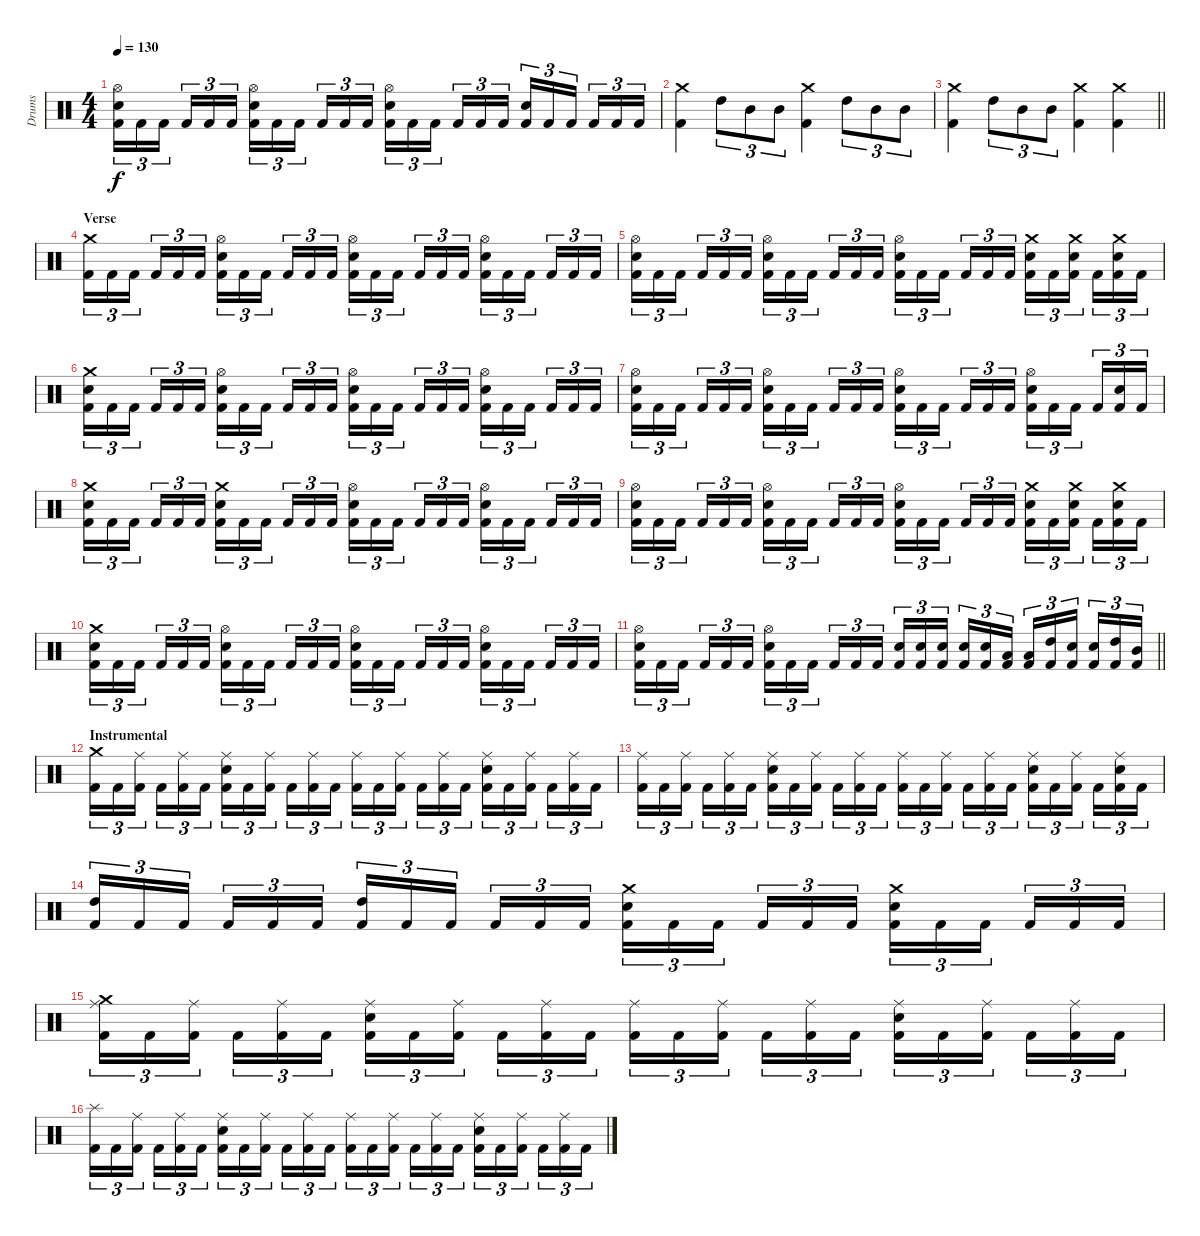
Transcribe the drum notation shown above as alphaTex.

\track ("Drums" "Drums") {instrument percussion}
\staff {score}
\articulation defaults
\ts (4 4)
\tempo 130
\clef neutral
\ks c
("Kick (hit) 2" "Electric Snare (hit)" "Hi-Hat (open)").16{tu (3 2) dy f} "Kick (hit) 2".16{tu (3 2)} "Kick (hit) 2".16{tu (3 2)} "Kick (hit) 2".16{tu (3 2)} "Kick (hit) 2".16{tu (3 2)} "Kick (hit) 2".16{tu (3 2)} ("Kick (hit) 2" "Electric Snare (hit)" "Hi-Hat (open)").16{tu (3 2)} "Kick (hit) 2".16{tu (3 2)} "Kick (hit) 2".16{tu (3 2)} "Kick (hit) 2".16{tu (3 2)} "Kick (hit) 2".16{tu (3 2)} "Kick (hit) 2".16{tu (3 2)} ("Kick (hit) 2" "Electric Snare (hit)" "Hi-Hat (open)").16{tu (3 2)} "Kick (hit) 2".16{tu (3 2)} "Kick (hit) 2".16{tu (3 2)} "Kick (hit) 2".16{tu (3 2)} "Kick (hit) 2".16{tu (3 2)} "Kick (hit) 2".16{tu (3 2)} ("Kick (hit) 2" "Electric Snare (hit)").16{tu (3 2)} "Kick (hit) 2".16{tu (3 2)} "Kick (hit) 2".16{tu (3 2)} "Kick (hit) 2".16{tu (3 2)} "Kick (hit) 2".16{tu (3 2)} "Kick (hit) 2".16{tu (3 2)} |
("Crash medium (hit)" "Kick (hit) 2").4 "High Tom (hit)".8{tu (3 2)} "Mid Tom (hit)".8{tu (3 2)} "Mid Tom (hit)".8{tu (3 2)} ("Crash medium (hit)" "Kick (hit) 2").4 "High Tom (hit)".8{tu (3 2)} "Mid Tom (hit)".8{tu (3 2)} "Mid Tom (hit)".8{tu (3 2)} |
\barLineRight lightlight
("Crash medium (hit)" "Kick (hit) 2").4 "High Tom (hit)".8{tu (3 2)} "Mid Tom (hit)".8{tu (3 2)} "Mid Tom (hit)".8{tu (3 2)} ("Crash medium (hit)" "Kick (hit) 2").4 ("Crash medium (hit)" "Kick (hit) 2").4 |
\section ("" "Verse")
("Kick (hit) 2" "Crash medium (hit)").16{tu (3 2)} "Kick (hit) 2".16{tu (3 2)} "Kick (hit) 2".16{tu (3 2)} "Kick (hit) 2".16{tu (3 2)} "Kick (hit) 2".16{tu (3 2)} "Kick (hit) 2".16{tu (3 2)} ("Kick (hit) 2" "Electric Snare (hit)" "Hi-Hat (open)").16{tu (3 2)} "Kick (hit) 2".16{tu (3 2)} "Kick (hit) 2".16{tu (3 2)} "Kick (hit) 2".16{tu (3 2)} "Kick (hit) 2".16{tu (3 2)} "Kick (hit) 2".16{tu (3 2)} ("Kick (hit) 2" "Electric Snare (hit)" "Hi-Hat (open)").16{tu (3 2)} "Kick (hit) 2".16{tu (3 2)} "Kick (hit) 2".16{tu (3 2)} "Kick (hit) 2".16{tu (3 2)} "Kick (hit) 2".16{tu (3 2)} "Kick (hit) 2".16{tu (3 2)} ("Kick (hit) 2" "Electric Snare (hit)" "Hi-Hat (open)").16{tu (3 2)} "Kick (hit) 2".16{tu (3 2)} "Kick (hit) 2".16{tu (3 2)} "Kick (hit) 2".16{tu (3 2)} "Kick (hit) 2".16{tu (3 2)} "Kick (hit) 2".16{tu (3 2)} |
("Kick (hit) 2" "Electric Snare (hit)" "Hi-Hat (open)").16{tu (3 2)} "Kick (hit) 2".16{tu (3 2)} "Kick (hit) 2".16{tu (3 2)} "Kick (hit) 2".16{tu (3 2)} "Kick (hit) 2".16{tu (3 2)} "Kick (hit) 2".16{tu (3 2)} ("Kick (hit) 2" "Electric Snare (hit)" "Hi-Hat (open)").16{tu (3 2)} "Kick (hit) 2".16{tu (3 2)} "Kick (hit) 2".16{tu (3 2)} "Kick (hit) 2".16{tu (3 2)} "Kick (hit) 2".16{tu (3 2)} "Kick (hit) 2".16{tu (3 2)} ("Kick (hit) 2" "Electric Snare (hit)" "Hi-Hat (open)").16{tu (3 2)} "Kick (hit) 2".16{tu (3 2)} "Kick (hit) 2".16{tu (3 2)} "Kick (hit) 2".16{tu (3 2)} "Kick (hit) 2".16{tu (3 2)} "Kick (hit) 2".16{tu (3 2)} ("Kick (hit) 2" "Electric Snare (hit)" "Crash medium (hit)").16{tu (3 2)} "Kick (hit) 2".16{tu (3 2)} ("Kick (hit) 2" "Electric Snare (hit)" "Crash medium (hit)").16{tu (3 2)} "Kick (hit) 2".16{tu (3 2)} ("Kick (hit) 2" "Electric Snare (hit)" "Crash medium (hit)").16{tu (3 2)} "Kick (hit) 2".16{tu (3 2)} |
("Kick (hit) 2" "Electric Snare (hit)" "Crash medium (hit)").16{tu (3 2)} "Kick (hit) 2".16{tu (3 2)} "Kick (hit) 2".16{tu (3 2)} "Kick (hit) 2".16{tu (3 2)} "Kick (hit) 2".16{tu (3 2)} "Kick (hit) 2".16{tu (3 2)} ("Kick (hit) 2" "Electric Snare (hit)" "Hi-Hat (open)").16{tu (3 2)} "Kick (hit) 2".16{tu (3 2)} "Kick (hit) 2".16{tu (3 2)} "Kick (hit) 2".16{tu (3 2)} "Kick (hit) 2".16{tu (3 2)} "Kick (hit) 2".16{tu (3 2)} ("Kick (hit) 2" "Electric Snare (hit)" "Hi-Hat (open)").16{tu (3 2)} "Kick (hit) 2".16{tu (3 2)} "Kick (hit) 2".16{tu (3 2)} "Kick (hit) 2".16{tu (3 2)} "Kick (hit) 2".16{tu (3 2)} "Kick (hit) 2".16{tu (3 2)} ("Kick (hit) 2" "Electric Snare (hit)" "Hi-Hat (open)").16{tu (3 2)} "Kick (hit) 2".16{tu (3 2)} "Kick (hit) 2".16{tu (3 2)} "Kick (hit) 2".16{tu (3 2)} "Kick (hit) 2".16{tu (3 2)} "Kick (hit) 2".16{tu (3 2)} |
("Kick (hit) 2" "Electric Snare (hit)" "Hi-Hat (open)").16{tu (3 2)} "Kick (hit) 2".16{tu (3 2)} "Kick (hit) 2".16{tu (3 2)} "Kick (hit) 2".16{tu (3 2)} "Kick (hit) 2".16{tu (3 2)} "Kick (hit) 2".16{tu (3 2)} ("Kick (hit) 2" "Electric Snare (hit)" "Hi-Hat (open)").16{tu (3 2)} "Kick (hit) 2".16{tu (3 2)} "Kick (hit) 2".16{tu (3 2)} "Kick (hit) 2".16{tu (3 2)} "Kick (hit) 2".16{tu (3 2)} "Kick (hit) 2".16{tu (3 2)} ("Kick (hit) 2" "Electric Snare (hit)" "Hi-Hat (open)").16{tu (3 2)} "Kick (hit) 2".16{tu (3 2)} "Kick (hit) 2".16{tu (3 2)} "Kick (hit) 2".16{tu (3 2)} "Kick (hit) 2".16{tu (3 2)} "Kick (hit) 2".16{tu (3 2)} ("Kick (hit) 2" "Electric Snare (hit)" "Hi-Hat (open)").16{tu (3 2)} "Kick (hit) 2".16{tu (3 2)} "Kick (hit) 2".16{tu (3 2)} "Kick (hit) 2".16{tu (3 2)} ("Kick (hit) 2" "Electric Snare (hit)").16{tu (3 2)} "Kick (hit) 2".16{tu (3 2)} |
("Kick (hit) 2" "Electric Snare (hit)" "Crash medium (hit)").16{tu (3 2)} "Kick (hit) 2".16{tu (3 2)} "Kick (hit) 2".16{tu (3 2)} "Kick (hit) 2".16{tu (3 2)} "Kick (hit) 2".16{tu (3 2)} "Kick (hit) 2".16{tu (3 2)} ("Kick (hit) 2" "Electric Snare (hit)" "Crash medium (hit)").16{tu (3 2)} "Kick (hit) 2".16{tu (3 2)} "Kick (hit) 2".16{tu (3 2)} "Kick (hit) 2".16{tu (3 2)} "Kick (hit) 2".16{tu (3 2)} "Kick (hit) 2".16{tu (3 2)} ("Kick (hit) 2" "Electric Snare (hit)" "Hi-Hat (open)").16{tu (3 2)} "Kick (hit) 2".16{tu (3 2)} "Kick (hit) 2".16{tu (3 2)} "Kick (hit) 2".16{tu (3 2)} "Kick (hit) 2".16{tu (3 2)} "Kick (hit) 2".16{tu (3 2)} ("Kick (hit) 2" "Electric Snare (hit)" "Hi-Hat (open)").16{tu (3 2)} "Kick (hit) 2".16{tu (3 2)} "Kick (hit) 2".16{tu (3 2)} "Kick (hit) 2".16{tu (3 2)} "Kick (hit) 2".16{tu (3 2)} "Kick (hit) 2".16{tu (3 2)} |
("Kick (hit) 2" "Electric Snare (hit)" "Hi-Hat (open)").16{tu (3 2)} "Kick (hit) 2".16{tu (3 2)} "Kick (hit) 2".16{tu (3 2)} "Kick (hit) 2".16{tu (3 2)} "Kick (hit) 2".16{tu (3 2)} "Kick (hit) 2".16{tu (3 2)} ("Kick (hit) 2" "Electric Snare (hit)" "Hi-Hat (open)").16{tu (3 2)} "Kick (hit) 2".16{tu (3 2)} "Kick (hit) 2".16{tu (3 2)} "Kick (hit) 2".16{tu (3 2)} "Kick (hit) 2".16{tu (3 2)} "Kick (hit) 2".16{tu (3 2)} ("Kick (hit) 2" "Electric Snare (hit)" "Hi-Hat (open)").16{tu (3 2)} "Kick (hit) 2".16{tu (3 2)} "Kick (hit) 2".16{tu (3 2)} "Kick (hit) 2".16{tu (3 2)} "Kick (hit) 2".16{tu (3 2)} "Kick (hit) 2".16{tu (3 2)} ("Kick (hit) 2" "Electric Snare (hit)" "Crash medium (hit)").16{tu (3 2)} "Kick (hit) 2".16{tu (3 2)} ("Kick (hit) 2" "Electric Snare (hit)" "Crash medium (hit)").16{tu (3 2)} "Kick (hit) 2".16{tu (3 2)} ("Kick (hit) 2" "Electric Snare (hit)" "Crash medium (hit)").16{tu (3 2)} "Kick (hit) 2".16{tu (3 2)} |
("Kick (hit) 2" "Electric Snare (hit)" "Crash medium (hit)").16{tu (3 2)} "Kick (hit) 2".16{tu (3 2)} "Kick (hit) 2".16{tu (3 2)} "Kick (hit) 2".16{tu (3 2)} "Kick (hit) 2".16{tu (3 2)} "Kick (hit) 2".16{tu (3 2)} ("Kick (hit) 2" "Electric Snare (hit)" "Hi-Hat (open)").16{tu (3 2)} "Kick (hit) 2".16{tu (3 2)} "Kick (hit) 2".16{tu (3 2)} "Kick (hit) 2".16{tu (3 2)} "Kick (hit) 2".16{tu (3 2)} "Kick (hit) 2".16{tu (3 2)} ("Kick (hit) 2" "Electric Snare (hit)" "Hi-Hat (open)").16{tu (3 2)} "Kick (hit) 2".16{tu (3 2)} "Kick (hit) 2".16{tu (3 2)} "Kick (hit) 2".16{tu (3 2)} "Kick (hit) 2".16{tu (3 2)} "Kick (hit) 2".16{tu (3 2)} ("Kick (hit) 2" "Electric Snare (hit)" "Hi-Hat (open)").16{tu (3 2)} "Kick (hit) 2".16{tu (3 2)} "Kick (hit) 2".16{tu (3 2)} "Kick (hit) 2".16{tu (3 2)} "Kick (hit) 2".16{tu (3 2)} "Kick (hit) 2".16{tu (3 2)} |
\barLineRight lightlight
("Kick (hit) 2" "Electric Snare (hit)" "Hi-Hat (open)").16{tu (3 2)} "Kick (hit) 2".16{tu (3 2)} "Kick (hit) 2".16{tu (3 2)} "Kick (hit) 2".16{tu (3 2)} "Kick (hit) 2".16{tu (3 2)} "Kick (hit) 2".16{tu (3 2)} ("Kick (hit) 2" "Electric Snare (hit)" "Hi-Hat (open)").16{tu (3 2)} "Kick (hit) 2".16{tu (3 2)} "Kick (hit) 2".16{tu (3 2)} "Kick (hit) 2".16{tu (3 2)} "Kick (hit) 2".16{tu (3 2)} "Kick (hit) 2".16{tu (3 2)} ("Kick (hit) 2" "Electric Snare (hit)").16{tu (3 2)} ("Kick (hit) 2" "Electric Snare (hit)").16{tu (3 2)} ("Kick (hit) 2" "Electric Snare (hit)").16{tu (3 2)} ("Kick (hit) 2" "Electric Snare (hit)").16{tu (3 2)} ("Kick (hit) 2" "Electric Snare (hit)").16{tu (3 2)} ("Kick (hit) 2" "Low Tom (hit)").16{tu (3 2)} ("Kick (hit) 2" "Low Tom (hit)").16{tu (3 2)} ("Kick (hit) 2" "High Tom (hit)").16{tu (3 2)} ("Kick (hit) 2" "Electric Snare (hit)").16{tu (3 2)} ("Kick (hit) 2" "Electric Snare (hit)").16{tu (3 2)} ("Kick (hit) 2" "High Tom (hit)").16{tu (3 2)} ("Kick (hit) 2" "Mid Tom (hit)").16{tu (3 2)} |
\section ("" "Instrumental")
("Kick (hit) 2" "Crash medium (hit)").16{tu (3 2)} "Kick (hit) 2".16{tu (3 2)} ("Kick (hit) 2" "Ride (middle)").16{tu (3 2)} "Kick (hit) 2".16{tu (3 2)} ("Kick (hit) 2" "Ride (middle)").16{tu (3 2)} "Kick (hit) 2".16{tu (3 2)} ("Kick (hit) 2" "Electric Snare (hit)" "Ride (middle)").16{tu (3 2)} "Kick (hit) 2".16{tu (3 2)} ("Kick (hit) 2" "Ride (middle)").16{tu (3 2)} "Kick (hit) 2".16{tu (3 2)} ("Kick (hit) 2" "Ride (middle)").16{tu (3 2)} "Kick (hit) 2".16{tu (3 2)} ("Kick (hit) 2" "Ride (middle)").16{tu (3 2)} "Kick (hit) 2".16{tu (3 2)} ("Kick (hit) 2" "Ride (middle)").16{tu (3 2)} "Kick (hit) 2".16{tu (3 2)} ("Kick (hit) 2" "Ride (middle)").16{tu (3 2)} "Kick (hit) 2".16{tu (3 2)} ("Kick (hit) 2" "Electric Snare (hit)" "Ride (middle)").16{tu (3 2)} "Kick (hit) 2".16{tu (3 2)} ("Kick (hit) 2" "Ride (middle)").16{tu (3 2)} "Kick (hit) 2".16{tu (3 2)} ("Kick (hit) 2" "Ride (middle)").16{tu (3 2)} "Kick (hit) 2".16{tu (3 2)} |
("Kick (hit) 2" "Ride (middle)").16{tu (3 2)} "Kick (hit) 2".16{tu (3 2)} ("Kick (hit) 2" "Ride (middle)").16{tu (3 2)} "Kick (hit) 2".16{tu (3 2)} ("Kick (hit) 2" "Ride (middle)").16{tu (3 2)} "Kick (hit) 2".16{tu (3 2)} ("Kick (hit) 2" "Electric Snare (hit)" "Ride (middle)").16{tu (3 2)} "Kick (hit) 2".16{tu (3 2)} ("Kick (hit) 2" "Ride (middle)").16{tu (3 2)} "Kick (hit) 2".16{tu (3 2)} ("Kick (hit) 2" "Ride (middle)").16{tu (3 2)} "Kick (hit) 2".16{tu (3 2)} ("Kick (hit) 2" "Ride (middle)").16{tu (3 2)} "Kick (hit) 2".16{tu (3 2)} ("Kick (hit) 2" "Ride (middle)").16{tu (3 2)} "Kick (hit) 2".16{tu (3 2)} ("Kick (hit) 2" "Ride (middle)").16{tu (3 2)} "Kick (hit) 2".16{tu (3 2)} ("Kick (hit) 2" "Electric Snare (hit)" "Ride (middle)").16{tu (3 2)} "Kick (hit) 2".16{tu (3 2)} ("Kick (hit) 2" "Ride (middle)").16{tu (3 2)} "Kick (hit) 2".16{tu (3 2)} ("Kick (hit) 2" "Electric Snare (hit)" "Ride (middle)").16{tu (3 2)} "Kick (hit) 2".16{tu (3 2)} |
("Kick (hit) 2" "High Tom (hit)").16{tu (3 2)} "Kick (hit) 2".16{tu (3 2)} "Kick (hit) 2".16{tu (3 2)} "Kick (hit) 2".16{tu (3 2)} "Kick (hit) 2".16{tu (3 2)} "Kick (hit) 2".16{tu (3 2)} ("Kick (hit) 2" "High Tom (hit)").16{tu (3 2)} "Kick (hit) 2".16{tu (3 2)} "Kick (hit) 2".16{tu (3 2)} "Kick (hit) 2".16{tu (3 2)} "Kick (hit) 2".16{tu (3 2)} "Kick (hit) 2".16{tu (3 2)} ("Kick (hit) 2" "Electric Snare (hit)" "Crash medium (hit)").16{tu (3 2)} "Kick (hit) 2".16{tu (3 2)} "Kick (hit) 2".16{tu (3 2)} "Kick (hit) 2".16{tu (3 2)} "Kick (hit) 2".16{tu (3 2)} "Kick (hit) 2".16{tu (3 2)} ("Kick (hit) 2" "Electric Snare (hit)" "Crash medium (hit)").16{tu (3 2)} "Kick (hit) 2".16{tu (3 2)} "Kick (hit) 2".16{tu (3 2)} "Kick (hit) 2".16{tu (3 2)} "Kick (hit) 2".16{tu (3 2)} "Kick (hit) 2".16{tu (3 2)} |
("Kick (hit) 2" "Crash medium (hit)" "Ride (middle)").16{tu (3 2)} "Kick (hit) 2".16{tu (3 2)} ("Kick (hit) 2" "Ride (middle)").16{tu (3 2)} "Kick (hit) 2".16{tu (3 2)} ("Kick (hit) 2" "Ride (middle)").16{tu (3 2)} "Kick (hit) 2".16{tu (3 2)} ("Kick (hit) 2" "Electric Snare (hit)" "Ride (middle)").16{tu (3 2)} "Kick (hit) 2".16{tu (3 2)} ("Kick (hit) 2" "Ride (middle)").16{tu (3 2)} "Kick (hit) 2".16{tu (3 2)} ("Kick (hit) 2" "Ride (middle)").16{tu (3 2)} "Kick (hit) 2".16{tu (3 2)} ("Kick (hit) 2" "Ride (middle)").16{tu (3 2)} "Kick (hit) 2".16{tu (3 2)} ("Kick (hit) 2" "Ride (middle)").16{tu (3 2)} "Kick (hit) 2".16{tu (3 2)} ("Kick (hit) 2" "Ride (middle)").16{tu (3 2)} "Kick (hit) 2".16{tu (3 2)} ("Kick (hit) 2" "Electric Snare (hit)" "Ride (middle)").16{tu (3 2)} "Kick (hit) 2".16{tu (3 2)} ("Kick (hit) 2" "Ride (middle)").16{tu (3 2)} "Kick (hit) 2".16{tu (3 2)} ("Kick (hit) 2" "Ride (middle)").16{tu (3 2)} "Kick (hit) 2".16{tu (3 2)} |
("Kick (hit) 2" "Splash (hit)").16{tu (3 2)} "Kick (hit) 2".16{tu (3 2)} ("Kick (hit) 2" "Ride (middle)").16{tu (3 2)} "Kick (hit) 2".16{tu (3 2)} ("Kick (hit) 2" "Ride (middle)").16{tu (3 2)} "Kick (hit) 2".16{tu (3 2)} ("Kick (hit) 2" "Electric Snare (hit)" "Ride (middle)").16{tu (3 2)} "Kick (hit) 2".16{tu (3 2)} ("Kick (hit) 2" "Ride (middle)").16{tu (3 2)} "Kick (hit) 2".16{tu (3 2)} ("Kick (hit) 2" "Ride (middle)").16{tu (3 2)} "Kick (hit) 2".16{tu (3 2)} ("Kick (hit) 2" "Ride (middle)").16{tu (3 2)} "Kick (hit) 2".16{tu (3 2)} ("Kick (hit) 2" "Ride (middle)").16{tu (3 2)} "Kick (hit) 2".16{tu (3 2)} ("Kick (hit) 2" "Ride (middle)").16{tu (3 2)} "Kick (hit) 2".16{tu (3 2)} ("Kick (hit) 2" "Electric Snare (hit)" "Ride (middle)").16{tu (3 2)} "Kick (hit) 2".16{tu (3 2)} ("Kick (hit) 2" "Ride (middle)").16{tu (3 2)} "Kick (hit) 2".16{tu (3 2)} ("Kick (hit) 2" "Ride (middle)").16{tu (3 2)} "Kick (hit) 2".16{tu (3 2)}
